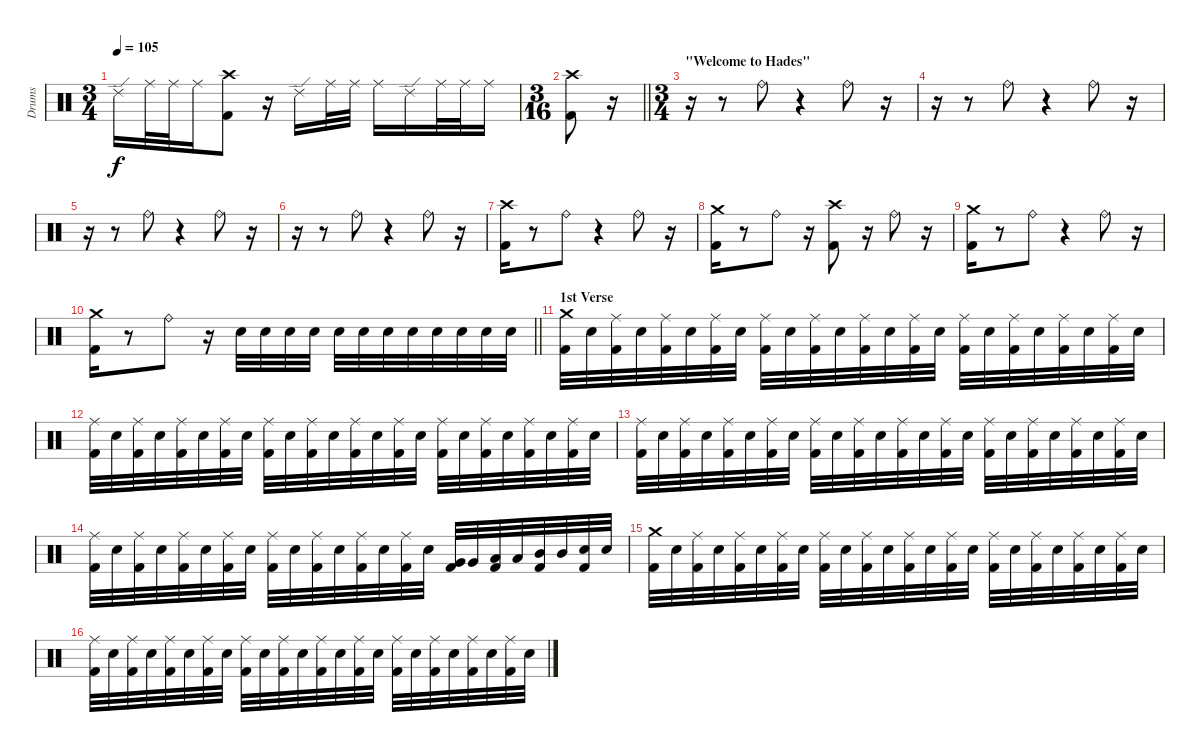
\track ("Drums" "Drums") {instrument percussion}
\staff {score}
\articulation defaults
\ts (3 4)
\tempo 105
\clef neutral
\ks c "Ride (edge) 2".16{dy f} "Ride (middle)".32 "Ride (middle)".32 "Ride (middle)".16
("Kick (hit) 2" "Crash high (hit)").8 r.16 "Ride (edge) 2".16 "Ride (middle)".32 "Ride (middle)".32 "Ride (middle)".16 "Ride (edge) 2".16 "Ride (middle)".32 "Ride (middle)".32 "Ride (middle)".16 |
\ts (3 16)
\barLineRight lightlight
("Kick (hit) 2" "Crash high (hit)").8 r.16 |
\ts (3 4)
\section ("" "\"Welcome to Hades\"")
r.16 r.8 "Ride (bell)".8 r.4 "Ride (bell)".8 r.16 |
r.16 r.8 "Ride (bell)".8 r.4 "Ride (bell)".8 r.16 |
r.16 r.8 "Ride (bell)".8 r.4 "Ride (bell)".8 r.16 |
r.16 r.8 "Ride (bell)".8 r.4 "Ride (bell)".8 r.16 |
("Kick (hit) 2" "Crash high (hit)").16 r.8 "Ride (bell)".8 r.4 "Ride (bell)".8 r.16 |
("Kick (hit) 2" "Crash medium (hit)").16 r.8 "Ride (bell)".8 r.16 ("Kick (hit) 2" "Crash high (hit)").8 r.16 "Ride (bell)".8 r.16 |
("Kick (hit) 2" "Crash medium (hit)").16 r.8 "Ride (bell)".8 r.4 "Ride (bell)".8 r.16 |
\barLineRight lightlight
("Kick (hit) 2" "Crash medium (hit)").16 r.8 "Ride (bell)".8 r.16 "Electric Snare (hit)".32 "Electric Snare (hit)".32 "Electric Snare (hit)".32 "Electric Snare (hit)".32 "Electric Snare (hit)".32 "Electric Snare (hit)".32 "Electric Snare (hit)".32 "Electric Snare (hit)".32 "Electric Snare (hit)".32 "Electric Snare (hit)".32 "Electric Snare (hit)".32 "Electric Snare (hit)".32 |
\section ("" "1st Verse")
("Kick (hit) 2" "Crash medium (hit)").32 "Electric Snare (hit)".32 ("Kick (hit) 2" "Ride (middle)").32 "Electric Snare (hit)".32 ("Kick (hit) 2" "Ride (middle)").32 "Electric Snare (hit)".32 ("Kick (hit) 2" "Ride (middle)").32 "Electric Snare (hit)".32 ("Kick (hit) 2" "Ride (middle)").32 "Electric Snare (hit)".32 ("Kick (hit) 2" "Ride (middle)").32 "Electric Snare (hit)".32 ("Kick (hit) 2" "Ride (middle)").32 "Electric Snare (hit)".32 ("Kick (hit) 2" "Ride (middle)").32 "Electric Snare (hit)".32 ("Kick (hit) 2" "Ride (middle)").32 "Electric Snare (hit)".32 ("Kick (hit) 2" "Ride (middle)").32 "Electric Snare (hit)".32 ("Kick (hit) 2" "Ride (middle)").32 "Electric Snare (hit)".32 ("Kick (hit) 2" "Ride (middle)").32 "Electric Snare (hit)".32 |
("Kick (hit) 2" "Ride (middle)").32 "Electric Snare (hit)".32 ("Kick (hit) 2" "Ride (middle)").32 "Electric Snare (hit)".32 ("Kick (hit) 2" "Ride (middle)").32 "Electric Snare (hit)".32 ("Kick (hit) 2" "Ride (middle)").32 "Electric Snare (hit)".32 ("Kick (hit) 2" "Ride (middle)").32 "Electric Snare (hit)".32 ("Kick (hit) 2" "Ride (middle)").32 "Electric Snare (hit)".32 ("Kick (hit) 2" "Ride (middle)").32 "Electric Snare (hit)".32 ("Kick (hit) 2" "Ride (middle)").32 "Electric Snare (hit)".32 ("Kick (hit) 2" "Ride (middle)").32 "Electric Snare (hit)".32 ("Kick (hit) 2" "Ride (middle)").32 "Electric Snare (hit)".32 ("Kick (hit) 2" "Ride (middle)").32 "Electric Snare (hit)".32 ("Kick (hit) 2" "Ride (middle)").32 "Electric Snare (hit)".32 |
("Kick (hit) 2" "Ride (middle)").32 "Electric Snare (hit)".32 ("Kick (hit) 2" "Ride (middle)").32 "Electric Snare (hit)".32 ("Kick (hit) 2" "Ride (middle)").32 "Electric Snare (hit)".32 ("Kick (hit) 2" "Ride (middle)").32 "Electric Snare (hit)".32 ("Kick (hit) 2" "Ride (middle)").32 "Electric Snare (hit)".32 ("Kick (hit) 2" "Ride (middle)").32 "Electric Snare (hit)".32 ("Kick (hit) 2" "Ride (middle)").32 "Electric Snare (hit)".32 ("Kick (hit) 2" "Ride (middle)").32 "Electric Snare (hit)".32 ("Kick (hit) 2" "Ride (middle)").32 "Electric Snare (hit)".32 ("Kick (hit) 2" "Ride (middle)").32 "Electric Snare (hit)".32 ("Kick (hit) 2" "Ride (middle)").32 "Electric Snare (hit)".32 ("Kick (hit) 2" "Ride (middle)").32 "Electric Snare (hit)".32 |
("Kick (hit) 2" "Ride (middle)").32 "Electric Snare (hit)".32 ("Kick (hit) 2" "Ride (middle)").32 "Electric Snare (hit)".32 ("Kick (hit) 2" "Ride (middle)").32 "Electric Snare (hit)".32 ("Kick (hit) 2" "Ride (middle)").32 "Electric Snare (hit)".32 ("Kick (hit) 2" "Ride (middle)").32 "Electric Snare (hit)".32 ("Kick (hit) 2" "Ride (middle)").32 "Electric Snare (hit)".32 ("Kick (hit) 2" "Ride (middle)").32 "Electric Snare (hit)".32 ("Kick (hit) 2" "Ride (middle)").32 "Electric Snare (hit)".32 ("Kick (hit) 2" "Very Low Tom (hit)").32 "Very Low Tom (hit)".32 ("Kick (hit) 2" "Low Tom (hit)").32 "Low Tom (hit)".32 ("Kick (hit) 2" "Mid Tom (hit)").32 "Mid Tom (hit)".32 ("Kick (hit) 2" "Electric Snare (hit)").32 "Electric Snare (hit)".32 |
("Kick (hit) 2" "Crash medium (hit)").32 "Electric Snare (hit)".32 ("Kick (hit) 2" "Ride (middle)").32 "Electric Snare (hit)".32 ("Kick (hit) 2" "Ride (middle)").32 "Electric Snare (hit)".32 ("Kick (hit) 2" "Ride (middle)").32 "Electric Snare (hit)".32 ("Kick (hit) 2" "Ride (middle)").32 "Electric Snare (hit)".32 ("Kick (hit) 2" "Ride (middle)").32 "Electric Snare (hit)".32 ("Kick (hit) 2" "Ride (middle)").32 "Electric Snare (hit)".32 ("Kick (hit) 2" "Ride (middle)").32 "Electric Snare (hit)".32 ("Kick (hit) 2" "Ride (middle)").32 "Electric Snare (hit)".32 ("Kick (hit) 2" "Ride (middle)").32 "Electric Snare (hit)".32 ("Kick (hit) 2" "Ride (middle)").32 "Electric Snare (hit)".32 ("Kick (hit) 2" "Ride (middle)").32 "Electric Snare (hit)".32 |
("Kick (hit) 2" "Ride (middle)").32 "Electric Snare (hit)".32 ("Kick (hit) 2" "Ride (middle)").32 "Electric Snare (hit)".32 ("Kick (hit) 2" "Ride (middle)").32 "Electric Snare (hit)".32 ("Kick (hit) 2" "Ride (middle)").32 "Electric Snare (hit)".32 ("Kick (hit) 2" "Ride (middle)").32 "Electric Snare (hit)".32 ("Kick (hit) 2" "Ride (middle)").32 "Electric Snare (hit)".32 ("Kick (hit) 2" "Ride (middle)").32 "Electric Snare (hit)".32 ("Kick (hit) 2" "Ride (middle)").32 "Electric Snare (hit)".32 ("Kick (hit) 2" "Ride (middle)").32 "Electric Snare (hit)".32 ("Kick (hit) 2" "Ride (middle)").32 "Electric Snare (hit)".32 ("Kick (hit) 2" "Ride (middle)").32 "Electric Snare (hit)".32 ("Kick (hit) 2" "Ride (middle)").32 "Electric Snare (hit)".32
